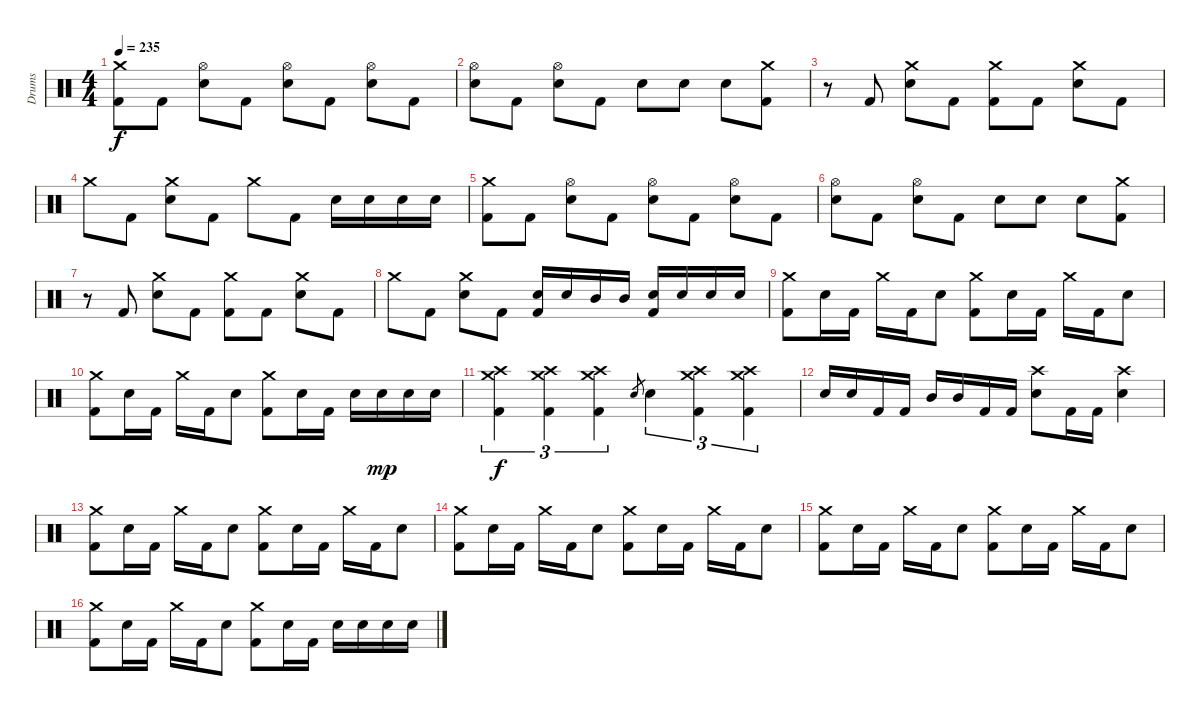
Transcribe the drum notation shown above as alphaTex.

\track ("Drums" "Drums") {instrument percussion}
\staff {score}
\articulation defaults
\ts (4 4)
\tempo 235
\clef neutral
\ks c
("Crash medium (hit)" "Kick (hit) 2").8{dy f} "Kick (hit) 2".8 ("Hi-Hat (open)" "Electric Snare (hit)").8 "Kick (hit) 2".8 ("Hi-Hat (open)" "Electric Snare (hit)").8 "Kick (hit) 2".8 ("Hi-Hat (open)" "Electric Snare (hit)").8 "Kick (hit) 2".8 |
("Hi-Hat (open)" "Electric Snare (hit)").8 "Kick (hit) 2".8 ("Hi-Hat (open)" "Electric Snare (hit)").8 "Kick (hit) 2".8 "Electric Snare (hit)".8 "Electric Snare (hit)".8 "Electric Snare (hit)".8 ("Crash medium (hit)" "Kick (hit) 2").8 |
r.8 "Kick (hit) 2".8 ("Crash medium (hit)" "Electric Snare (hit)").8 "Kick (hit) 2".8 ("Crash medium (hit)" "Kick (hit) 2").8 "Kick (hit) 2".8 ("Crash medium (hit)" "Electric Snare (hit)").8 "Kick (hit) 2".8 |
"Crash medium (hit)".8 "Kick (hit) 2".8 ("Crash medium (hit)" "Electric Snare (hit)").8 "Kick (hit) 2".8 "Crash medium (hit)".8 "Kick (hit) 2".8 "Electric Snare (hit)".16 "Electric Snare (hit)".16 "Electric Snare (hit)".16 "Electric Snare (hit)".16 |
("Crash medium (hit)" "Kick (hit) 2").8 "Kick (hit) 2".8 ("Hi-Hat (open)" "Electric Snare (hit)").8 "Kick (hit) 2".8 ("Hi-Hat (open)" "Electric Snare (hit)").8 "Kick (hit) 2".8 ("Hi-Hat (open)" "Electric Snare (hit)").8 "Kick (hit) 2".8 |
("Hi-Hat (open)" "Electric Snare (hit)").8 "Kick (hit) 2".8 ("Hi-Hat (open)" "Electric Snare (hit)").8 "Kick (hit) 2".8 "Electric Snare (hit)".8 "Electric Snare (hit)".8 "Electric Snare (hit)".8 ("Crash medium (hit)" "Kick (hit) 2").8 |
r.8 "Kick (hit) 2".8 ("Crash medium (hit)" "Electric Snare (hit)").8 "Kick (hit) 2".8 ("Crash medium (hit)" "Kick (hit) 2").8 "Kick (hit) 2".8 ("Crash medium (hit)" "Electric Snare (hit)").8 "Kick (hit) 2".8 |
"Crash medium (hit)".8 "Kick (hit) 2".8 ("Crash medium (hit)" "Electric Snare (hit)").8 "Kick (hit) 2".8 ("Electric Snare (hit)" "Kick (hit) 2").16 "Electric Snare (hit)".16 "Mid Tom (hit)".16 "Mid Tom (hit)".16 ("Electric Snare (hit)" "Kick (hit) 2").16 "Electric Snare (hit)".16 "Electric Snare (hit)".16 "Electric Snare (hit)".16 |
("Crash medium (hit)" "Kick (hit) 2").8 "Electric Snare (hit)".16 "Kick (hit) 2".16 "Crash medium (hit)".16 "Kick (hit) 2".16 "Electric Snare (hit)".8 ("Crash medium (hit)" "Kick (hit) 2").8 "Electric Snare (hit)".16 "Kick (hit) 2".16 "Crash medium (hit)".16 "Kick (hit) 2".16 "Electric Snare (hit)".8 |
("Crash medium (hit)" "Kick (hit) 2").8 "Electric Snare (hit)".16 "Kick (hit) 2".16 "Crash medium (hit)".16 "Kick (hit) 2".16 "Electric Snare (hit)".8 ("Crash medium (hit)" "Kick (hit) 2").8 "Electric Snare (hit)".16 "Kick (hit) 2".16 "Electric Snare (hit)".16 "Electric Snare (hit)".16{dy mp} "Electric Snare (hit)".16 "Electric Snare (hit)".16 |
("Crash medium (hit)" "Crash high (hit)" "Kick (hit) 2").4{tu (3 2) dy f} ("Crash medium (hit)" "Crash high (hit)" "Kick (hit) 2").4{tu (3 2)} ("Crash medium (hit)" "Crash high (hit)" "Kick (hit) 2").4{tu (3 2)} "Electric Snare (hit)".8{gr} "Electric Snare (hit)".4{tu (3 2)} ("Crash medium (hit)" "Crash high (hit)" "Kick (hit) 2").4{tu (3 2)} ("Crash medium (hit)" "Crash high (hit)" "Kick (hit) 2").4{tu (3 2)} |
"Electric Snare (hit)".16 "Electric Snare (hit)".16 "Kick (hit) 2".16 "Kick (hit) 2".16 "Mid Tom (hit)".16 "Mid Tom (hit)".16 "Kick (hit) 2".16 "Kick (hit) 2".16 ("Crash high (hit)" "Electric Snare (hit)").8 "Kick (hit) 2".16 "Kick (hit) 2".16 ("Crash high (hit)" "Electric Snare (hit)").4 |
("Crash medium (hit)" "Kick (hit) 2").8 "Electric Snare (hit)".16 "Kick (hit) 2".16 "Crash medium (hit)".16 "Kick (hit) 2".16 "Electric Snare (hit)".8 ("Crash medium (hit)" "Kick (hit) 2").8 "Electric Snare (hit)".16 "Kick (hit) 2".16 "Crash medium (hit)".16 "Kick (hit) 2".16 "Electric Snare (hit)".8 |
("Crash medium (hit)" "Kick (hit) 2").8 "Electric Snare (hit)".16 "Kick (hit) 2".16 "Crash medium (hit)".16 "Kick (hit) 2".16 "Electric Snare (hit)".8 ("Crash medium (hit)" "Kick (hit) 2").8 "Electric Snare (hit)".16 "Kick (hit) 2".16 "Crash medium (hit)".16 "Kick (hit) 2".16 "Electric Snare (hit)".8 |
("Crash medium (hit)" "Kick (hit) 2").8 "Electric Snare (hit)".16 "Kick (hit) 2".16 "Crash medium (hit)".16 "Kick (hit) 2".16 "Electric Snare (hit)".8 ("Crash medium (hit)" "Kick (hit) 2").8 "Electric Snare (hit)".16 "Kick (hit) 2".16 "Crash medium (hit)".16 "Kick (hit) 2".16 "Electric Snare (hit)".8 |
("Crash medium (hit)" "Kick (hit) 2").8 "Electric Snare (hit)".16 "Kick (hit) 2".16 "Crash medium (hit)".16 "Kick (hit) 2".16 "Electric Snare (hit)".8 ("Crash medium (hit)" "Kick (hit) 2").8 "Electric Snare (hit)".16 "Kick (hit) 2".16 "Electric Snare (hit)".16 "Electric Snare (hit)".16 "Electric Snare (hit)".16 "Electric Snare (hit)".16
